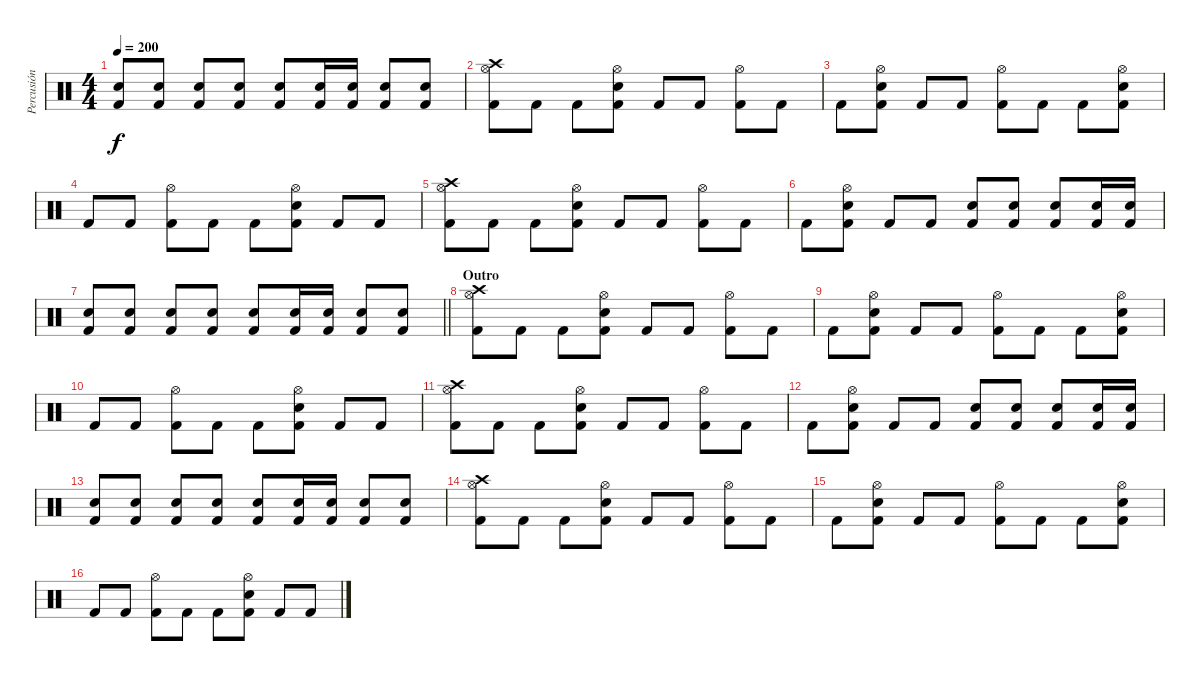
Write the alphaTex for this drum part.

\track ("Percusión" "Percusión") {instrument percussion}
\staff {score}
\articulation defaults
\ts (4 4)
\tempo 200
\clef neutral
\ks c
("Snare (hit) 2" "Kick (hit) 2").8{dy f} ("Snare (hit) 2" "Kick (hit) 2").8 ("Snare (hit) 2" "Kick (hit) 2").8 ("Snare (hit) 2" "Kick (hit) 2").8 ("Snare (hit) 2" "Kick (hit) 2").8 ("Snare (hit) 2" "Kick (hit) 2").16 ("Snare (hit) 2" "Kick (hit) 2").16 ("Snare (hit) 2" "Kick (hit) 2").8 ("Snare (hit) 2" "Kick (hit) 2").8 |
("Hi-Hat (open)" "Crash high (hit)" "Kick (hit) 2").8 "Kick (hit) 2".8 "Kick (hit) 2".8 ("Hi-Hat (open)" "Snare (hit) 2" "Kick (hit) 2").8 "Kick (hit) 2".8 "Kick (hit) 2".8 ("Hi-Hat (open)" "Kick (hit) 2").8 "Kick (hit) 2".8 |
"Kick (hit) 2".8 ("Hi-Hat (open)" "Snare (hit) 2" "Kick (hit) 2").8 "Kick (hit) 2".8 "Kick (hit) 2".8 ("Hi-Hat (open)" "Kick (hit) 2").8 "Kick (hit) 2".8 "Kick (hit) 2".8 ("Hi-Hat (open)" "Snare (hit) 2" "Kick (hit) 2").8 |
"Kick (hit) 2".8 "Kick (hit) 2".8 ("Hi-Hat (open)" "Kick (hit) 2").8 "Kick (hit) 2".8 "Kick (hit) 2".8 ("Hi-Hat (open)" "Snare (hit) 2" "Kick (hit) 2").8 "Kick (hit) 2".8 "Kick (hit) 2".8 |
("Hi-Hat (open)" "Crash high (hit)" "Kick (hit) 2").8 "Kick (hit) 2".8 "Kick (hit) 2".8 ("Hi-Hat (open)" "Snare (hit) 2" "Kick (hit) 2").8 "Kick (hit) 2".8 "Kick (hit) 2".8 ("Hi-Hat (open)" "Kick (hit) 2").8 "Kick (hit) 2".8 |
"Kick (hit) 2".8 ("Hi-Hat (open)" "Snare (hit) 2" "Kick (hit) 2").8 "Kick (hit) 2".8 "Kick (hit) 2".8 ("Snare (hit) 2" "Kick (hit) 2").8 ("Snare (hit) 2" "Kick (hit) 2").8 ("Snare (hit) 2" "Kick (hit) 2").8 ("Snare (hit) 2" "Kick (hit) 2").16 ("Snare (hit) 2" "Kick (hit) 2").16 |
\barLineRight lightlight
("Snare (hit) 2" "Kick (hit) 2").8 ("Snare (hit) 2" "Kick (hit) 2").8 ("Snare (hit) 2" "Kick (hit) 2").8 ("Snare (hit) 2" "Kick (hit) 2").8 ("Snare (hit) 2" "Kick (hit) 2").8 ("Snare (hit) 2" "Kick (hit) 2").16 ("Snare (hit) 2" "Kick (hit) 2").16 ("Snare (hit) 2" "Kick (hit) 2").8 ("Snare (hit) 2" "Kick (hit) 2").8 |
\section ("" "Outro")
("Hi-Hat (open)" "Crash high (hit)" "Kick (hit) 2").8 "Kick (hit) 2".8 "Kick (hit) 2".8 ("Hi-Hat (open)" "Snare (hit) 2" "Kick (hit) 2").8 "Kick (hit) 2".8 "Kick (hit) 2".8 ("Hi-Hat (open)" "Kick (hit) 2").8 "Kick (hit) 2".8 |
"Kick (hit) 2".8 ("Hi-Hat (open)" "Snare (hit) 2" "Kick (hit) 2").8 "Kick (hit) 2".8 "Kick (hit) 2".8 ("Hi-Hat (open)" "Kick (hit) 2").8 "Kick (hit) 2".8 "Kick (hit) 2".8 ("Hi-Hat (open)" "Snare (hit) 2" "Kick (hit) 2").8 |
"Kick (hit) 2".8 "Kick (hit) 2".8 ("Hi-Hat (open)" "Kick (hit) 2").8 "Kick (hit) 2".8 "Kick (hit) 2".8 ("Hi-Hat (open)" "Snare (hit) 2" "Kick (hit) 2").8 "Kick (hit) 2".8 "Kick (hit) 2".8 |
("Hi-Hat (open)" "Crash high (hit)" "Kick (hit) 2").8 "Kick (hit) 2".8 "Kick (hit) 2".8 ("Hi-Hat (open)" "Snare (hit) 2" "Kick (hit) 2").8 "Kick (hit) 2".8 "Kick (hit) 2".8 ("Hi-Hat (open)" "Kick (hit) 2").8 "Kick (hit) 2".8 |
"Kick (hit) 2".8 ("Hi-Hat (open)" "Snare (hit) 2" "Kick (hit) 2").8 "Kick (hit) 2".8 "Kick (hit) 2".8 ("Snare (hit) 2" "Kick (hit) 2").8 ("Snare (hit) 2" "Kick (hit) 2").8 ("Snare (hit) 2" "Kick (hit) 2").8 ("Snare (hit) 2" "Kick (hit) 2").16 ("Snare (hit) 2" "Kick (hit) 2").16 |
("Snare (hit) 2" "Kick (hit) 2").8 ("Snare (hit) 2" "Kick (hit) 2").8 ("Snare (hit) 2" "Kick (hit) 2").8 ("Snare (hit) 2" "Kick (hit) 2").8 ("Snare (hit) 2" "Kick (hit) 2").8 ("Snare (hit) 2" "Kick (hit) 2").16 ("Snare (hit) 2" "Kick (hit) 2").16 ("Snare (hit) 2" "Kick (hit) 2").8 ("Snare (hit) 2" "Kick (hit) 2").8 |
("Hi-Hat (open)" "Crash high (hit)" "Kick (hit) 2").8 "Kick (hit) 2".8 "Kick (hit) 2".8 ("Hi-Hat (open)" "Snare (hit) 2" "Kick (hit) 2").8 "Kick (hit) 2".8 "Kick (hit) 2".8 ("Hi-Hat (open)" "Kick (hit) 2").8 "Kick (hit) 2".8 |
"Kick (hit) 2".8 ("Hi-Hat (open)" "Snare (hit) 2" "Kick (hit) 2").8 "Kick (hit) 2".8 "Kick (hit) 2".8 ("Hi-Hat (open)" "Kick (hit) 2").8 "Kick (hit) 2".8 "Kick (hit) 2".8 ("Hi-Hat (open)" "Snare (hit) 2" "Kick (hit) 2").8 |
"Kick (hit) 2".8 "Kick (hit) 2".8 ("Hi-Hat (open)" "Kick (hit) 2").8 "Kick (hit) 2".8 "Kick (hit) 2".8 ("Hi-Hat (open)" "Snare (hit) 2" "Kick (hit) 2").8 "Kick (hit) 2".8 "Kick (hit) 2".8
